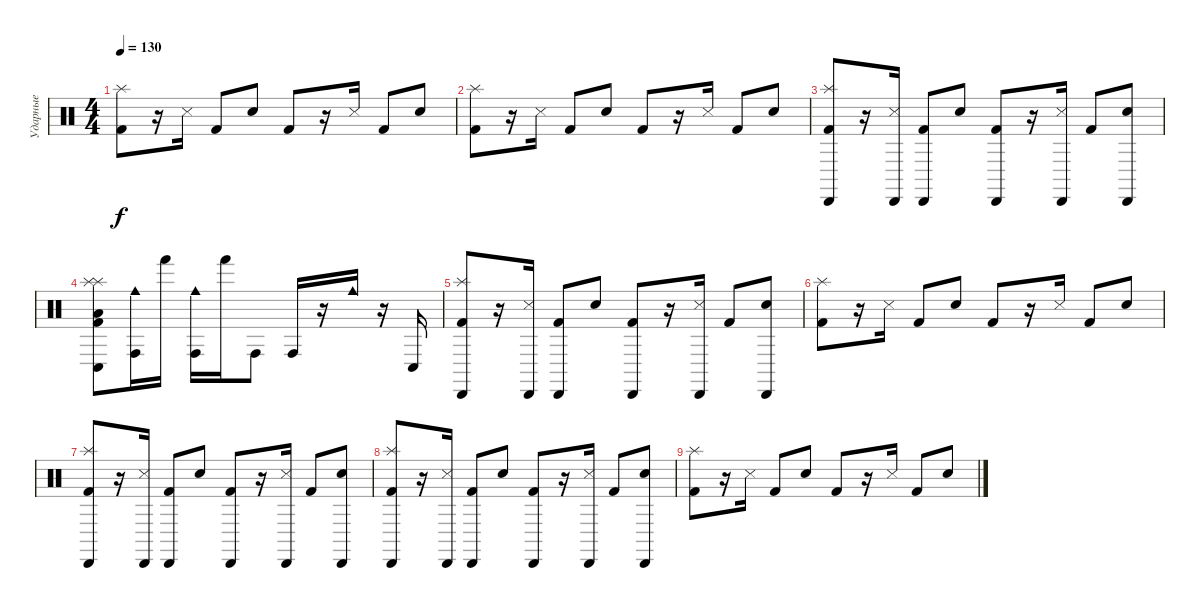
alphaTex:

\track ("Ударные" "Ударные") {instrument percussion}
\staff {score}
\articulation defaults
\ts (4 4)
\tempo 130
\clef neutral
\ks c
("Splash (hit)" "Kick (hit) 2").8{dy f} r.16 "Snare (side stick) 3".16 "Kick (hit) 2".8 "Hand Clap (hit)".8 "Kick (hit) 2".8 r.16 "Snare (side stick) 3".16 "Kick (hit) 2".8 "Hand Clap (hit)".8 |
("Splash (hit)" "Kick (hit) 2").8 r.16 "Snare (side stick) 3".16 "Kick (hit) 2".8 "Hand Clap (hit)".8 "Kick (hit) 2".8 r.16 "Snare (side stick) 3".16 "Kick (hit) 2".8 "Hand Clap (hit)".8 |
("Splash (hit)" "Kick (hit) 2" "Cabasa (hit)").8 r.16 ("Snare (side stick) 3" "Cabasa (hit)").16 ("Kick (hit) 2" "Cabasa (hit)").8 "Hand Clap (hit)".8 ("Kick (hit) 2" "Cabasa (hit)").8 r.16 ("Snare (side stick) 3" "Cabasa (hit)").16 "Kick (hit) 2".8 ("Hand Clap (hit)" "Cabasa (hit)").8 |
("Splash (hit)" "Splash (hit)" "Kick (hit) 2" "Conga low (hit)" "Low Floor Tom (hit)").8 ("Conga high (hit)" "Cowbell medium (hit)").16 "Hand (hit)".16 ("Conga high (hit)" "Cowbell medium (hit)").16 "Hand (hit)".16 "Conga high (hit)".8 "Conga high (hit)".16 r.16 "Cowbell medium (hit)".16 r.16 "Conga low (hit)".16 |
("Splash (hit)" "Kick (hit) 2" "Cabasa (hit)").8 r.16 ("Snare (side stick) 3" "Cabasa (hit)").16 ("Kick (hit) 2" "Cabasa (hit)").8 "Hand Clap (hit)".8 ("Kick (hit) 2" "Cabasa (hit)").8 r.16 ("Snare (side stick) 3" "Cabasa (hit)").16 "Kick (hit) 2".8 ("Hand Clap (hit)" "Cabasa (hit)").8 |
("Splash (hit)" "Kick (hit) 2").8 r.16 "Snare (side stick) 3".16 "Kick (hit) 2".8 "Hand Clap (hit)".8 "Kick (hit) 2".8 r.16 "Snare (side stick) 3".16 "Kick (hit) 2".8 "Hand Clap (hit)".8 |
("Splash (hit)" "Kick (hit) 2" "Cabasa (hit)").8 r.16 ("Snare (side stick) 3" "Cabasa (hit)").16 ("Kick (hit) 2" "Cabasa (hit)").8 "Hand Clap (hit)".8 ("Kick (hit) 2" "Cabasa (hit)").8 r.16 ("Snare (side stick) 3" "Cabasa (hit)").16 "Kick (hit) 2".8 ("Hand Clap (hit)" "Cabasa (hit)").8 |
("Splash (hit)" "Kick (hit) 2" "Cabasa (hit)").8 r.16 ("Snare (side stick) 3" "Cabasa (hit)").16 ("Kick (hit) 2" "Cabasa (hit)").8 "Hand Clap (hit)".8 ("Kick (hit) 2" "Cabasa (hit)").8 r.16 ("Snare (side stick) 3" "Cabasa (hit)").16 "Kick (hit) 2".8 ("Hand Clap (hit)" "Cabasa (hit)").8 |
("Splash (hit)" "Kick (hit) 2").8 r.16 "Snare (side stick) 3".16 "Kick (hit) 2".8 "Hand Clap (hit)".8 "Kick (hit) 2".8 r.16 "Snare (side stick) 3".16 "Kick (hit) 2".8 "Hand Clap (hit)".8
